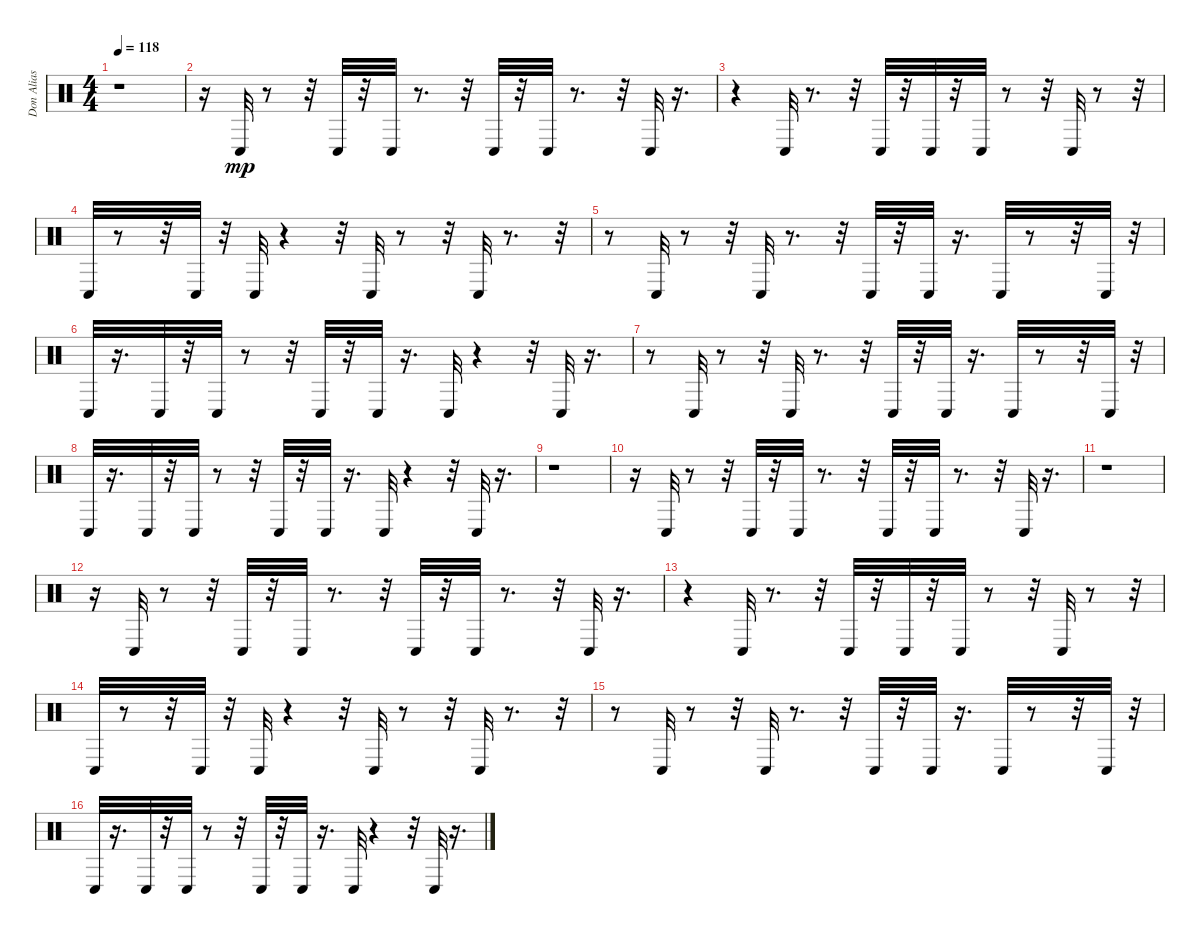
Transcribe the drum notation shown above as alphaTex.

\track ("Don Alias" "Don Alias") {instrument percussion}
\staff {score}
\articulation defaults
\ts (4 4)
\tempo 118
\clef neutral
\ks c
r.1{dy mp} |
r.16 "Conga low (hit)".32 r.8 r.32 "Conga low (hit)".32 r.32 "Conga low (hit)".32 r.8{d} r.32 "Conga low (hit)".32 r.32 "Conga low (hit)".32 r.8{d} r.32 "Conga low (hit)".32 r.16{d} |
r.4 "Conga low (hit)".32 r.8{d} r.32 "Conga low (hit)".32 r.32 "Conga low (hit)".32 r.32 "Conga low (hit)".32 r.8 r.32 "Conga low (hit)".32 r.8 r.32 |
"Conga low (hit)".32 r.8 r.32 "Conga low (hit)".32 r.32 "Conga low (hit)".32 r.4 r.32 "Conga low (hit)".32 r.8 r.32 "Conga low (hit)".32 r.8{d} r.32 |
r.8 "Conga low (hit)".32 r.8 r.32 "Conga low (hit)".32 r.8{d} r.32 "Conga low (hit)".32 r.32 "Conga low (hit)".32 r.16{d} "Conga low (hit)".32 r.8 r.32 "Conga low (hit)".32 r.32 |
"Conga low (hit)".32 r.16{d} "Conga low (hit)".32 r.32 "Conga low (hit)".32 r.8 r.32 "Conga low (hit)".32 r.32 "Conga low (hit)".32 r.16{d} "Conga low (hit)".32 r.4 r.32 "Conga low (hit)".32 r.16{d} |
r.8 "Conga low (hit)".32 r.8 r.32 "Conga low (hit)".32 r.8{d} r.32 "Conga low (hit)".32 r.32 "Conga low (hit)".32 r.16{d} "Conga low (hit)".32 r.8 r.32 "Conga low (hit)".32 r.32 |
"Conga low (hit)".32 r.16{d} "Conga low (hit)".32 r.32 "Conga low (hit)".32 r.8 r.32 "Conga low (hit)".32 r.32 "Conga low (hit)".32 r.16{d} "Conga low (hit)".32 r.4 r.32 "Conga low (hit)".32 r.16{d} |
r.1 |
r.16 "Conga low (hit)".32 r.8 r.32 "Conga low (hit)".32 r.32 "Conga low (hit)".32 r.8{d} r.32 "Conga low (hit)".32 r.32 "Conga low (hit)".32 r.8{d} r.32 "Conga low (hit)".32 r.16{d} |
r.1 |
r.16 "Conga low (hit)".32 r.8 r.32 "Conga low (hit)".32 r.32 "Conga low (hit)".32 r.8{d} r.32 "Conga low (hit)".32 r.32 "Conga low (hit)".32 r.8{d} r.32 "Conga low (hit)".32 r.16{d} |
r.4 "Conga low (hit)".32 r.8{d} r.32 "Conga low (hit)".32 r.32 "Conga low (hit)".32 r.32 "Conga low (hit)".32 r.8 r.32 "Conga low (hit)".32 r.8 r.32 |
"Conga low (hit)".32 r.8 r.32 "Conga low (hit)".32 r.32 "Conga low (hit)".32 r.4 r.32 "Conga low (hit)".32 r.8 r.32 "Conga low (hit)".32 r.8{d} r.32 |
r.8 "Conga low (hit)".32 r.8 r.32 "Conga low (hit)".32 r.8{d} r.32 "Conga low (hit)".32 r.32 "Conga low (hit)".32 r.16{d} "Conga low (hit)".32 r.8 r.32 "Conga low (hit)".32 r.32 |
"Conga low (hit)".32 r.16{d} "Conga low (hit)".32 r.32 "Conga low (hit)".32 r.8 r.32 "Conga low (hit)".32 r.32 "Conga low (hit)".32 r.16{d} "Conga low (hit)".32 r.4 r.32 "Conga low (hit)".32 r.16{d}
